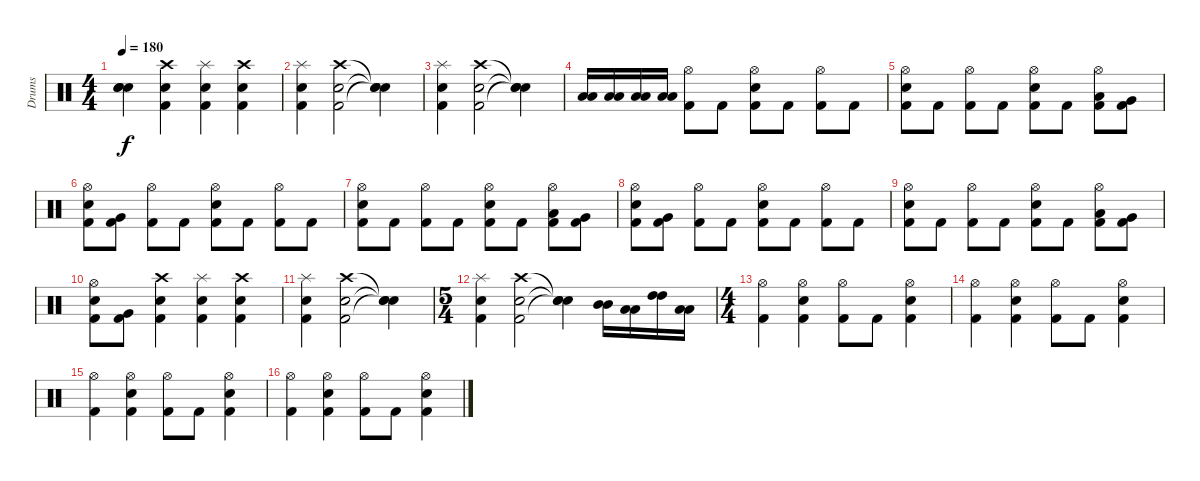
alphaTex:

\track ("Drums" "Drums") {instrument percussion}
\staff {score}
\articulation defaults
\ts (4 4)
\tempo 180
\clef neutral
\ks c
("Snare (hit)"{t} "Snare (hit)"{t} "Snare (hit)"{t}).4{dy f} ("Snare (hit) 2" "Kick (hit) 2" "Crash high (hit)").4 ("Snare (hit) 2" "Kick (hit) 2" "Splash (hit)").4 ("Snare (hit) 2" "Kick (hit) 2" "Crash high (hit)").4 |
("Snare (hit) 2" "Kick (hit) 2" "Splash (hit)").4 ("Snare (hit) 2" "Kick (hit) 2" "Crash high (hit)").2 ("Snare (hit)"{t} "Snare (hit)"{t} "Snare (hit)"{t}).4 |
("Snare (hit) 2" "Kick (hit) 2" "Splash (hit)").4 ("Snare (hit) 2" "Kick (hit) 2" "Crash high (hit)").2 ("Snare (hit)"{t} "Snare (hit)"{t} "Snare (hit)"{t}).4 |
("Low Tom (hit)" "Low Tom (hit)").16 ("Low Floor Tom (hit)" "Low Floor Tom (hit)").16 ("Low Tom (hit)" "Low Tom (hit)").16 ("Low Floor Tom (hit)" "Low Floor Tom (hit)").16 ("Hi-Hat (open)" "Kick (hit) 2").8 "Kick (hit) 2".8 ("Hi-Hat (open)" "Snare (hit) 2" "Kick (hit) 2").8 "Kick (hit) 2".8 ("Hi-Hat (open)" "Kick (hit) 2").8 "Kick (hit) 2".8 |
("Hi-Hat (open)" "Snare (hit) 2" "Kick (hit) 2").8 "Kick (hit) 2".8 ("Hi-Hat (open)" "Kick (hit) 2").8 "Kick (hit) 2".8 ("Hi-Hat (open)" "Snare (hit) 2" "Kick (hit) 2").8 "Kick (hit) 2".8 ("Hi-Hat (open)" "Low Tom (hit)" "Kick (hit) 2").8 ("Very Low Tom (hit)" "Kick (hit) 2").8 |
("Hi-Hat (open)" "Snare (hit) 2" "Kick (hit) 2").8 ("Very Low Tom (hit)" "Kick (hit) 2").8 ("Hi-Hat (open)" "Kick (hit) 2").8 "Kick (hit) 2".8 ("Hi-Hat (open)" "Snare (hit) 2" "Kick (hit) 2").8 "Kick (hit) 2".8 ("Hi-Hat (open)" "Kick (hit) 2").8 "Kick (hit) 2".8 |
("Hi-Hat (open)" "Snare (hit) 2" "Kick (hit) 2").8 "Kick (hit) 2".8 ("Hi-Hat (open)" "Kick (hit) 2").8 "Kick (hit) 2".8 ("Hi-Hat (open)" "Snare (hit) 2" "Kick (hit) 2").8 "Kick (hit) 2".8 ("Hi-Hat (open)" "Low Tom (hit)" "Kick (hit) 2").8 ("Very Low Tom (hit)" "Kick (hit) 2").8 |
("Hi-Hat (open)" "Snare (hit) 2" "Kick (hit) 2").8 ("Very Low Tom (hit)" "Kick (hit) 2").8 ("Hi-Hat (open)" "Kick (hit) 2").8 "Kick (hit) 2".8 ("Hi-Hat (open)" "Snare (hit) 2" "Kick (hit) 2").8 "Kick (hit) 2".8 ("Hi-Hat (open)" "Kick (hit) 2").8 "Kick (hit) 2".8 |
("Hi-Hat (open)" "Snare (hit) 2" "Kick (hit) 2").8 "Kick (hit) 2".8 ("Hi-Hat (open)" "Kick (hit) 2").8 "Kick (hit) 2".8 ("Hi-Hat (open)" "Snare (hit) 2" "Kick (hit) 2").8 "Kick (hit) 2".8 ("Hi-Hat (open)" "Low Tom (hit)" "Kick (hit) 2").8 ("Very Low Tom (hit)" "Kick (hit) 2").8 |
("Hi-Hat (open)" "Snare (hit) 2" "Kick (hit) 2").8 ("Very Low Tom (hit)" "Kick (hit) 2").8 ("Snare (hit) 2" "Kick (hit) 2" "Crash high (hit)").4 ("Snare (hit) 2" "Kick (hit) 2" "Splash (hit)").4 ("Snare (hit) 2" "Kick (hit) 2" "Crash high (hit)").4 |
("Snare (hit) 2" "Kick (hit) 2" "Splash (hit)").4 ("Snare (hit) 2" "Kick (hit) 2" "Crash high (hit)").2 ("Snare (hit)"{t} "Snare (hit)"{t} "Snare (hit)"{t}).4 |
\ts (5 4)
("Snare (hit) 2" "Kick (hit) 2" "Splash (hit)").4 ("Snare (hit) 2" "Kick (hit) 2" "Crash high (hit)").2 ("Snare (hit)"{t} "Snare (hit)"{t} "Snare (hit)"{t}).4 ("Mid Tom (hit)" "Mid Tom (hit)").16 ("Low Tom (hit)" "Low Tom (hit)").16 ("High Tom (hit)" "High Tom (hit)").16 ("Low Tom (hit)" "Low Tom (hit)").16 |
\ts (4 4)
("Hi-Hat (open)" "Kick (hit) 2").4 ("Hi-Hat (open)" "Snare (hit) 2" "Kick (hit) 2").4 ("Hi-Hat (open)" "Kick (hit) 2").8 "Kick (hit) 2".8 ("Hi-Hat (open)" "Snare (hit) 2" "Kick (hit) 2").4 |
("Hi-Hat (open)" "Kick (hit) 2").4 ("Hi-Hat (open)" "Snare (hit) 2" "Kick (hit) 2").4 ("Hi-Hat (open)" "Kick (hit) 2").8 "Kick (hit) 2".8 ("Hi-Hat (open)" "Snare (hit) 2" "Kick (hit) 2").4 |
("Hi-Hat (open)" "Kick (hit) 2").4 ("Hi-Hat (open)" "Snare (hit) 2" "Kick (hit) 2").4 ("Hi-Hat (open)" "Kick (hit) 2").8 "Kick (hit) 2".8 ("Hi-Hat (open)" "Snare (hit) 2" "Kick (hit) 2").4 |
("Hi-Hat (open)" "Kick (hit) 2").4 ("Hi-Hat (open)" "Snare (hit) 2" "Kick (hit) 2").4 ("Hi-Hat (open)" "Kick (hit) 2").8 "Kick (hit) 2".8 ("Hi-Hat (open)" "Snare (hit) 2" "Kick (hit) 2").4
